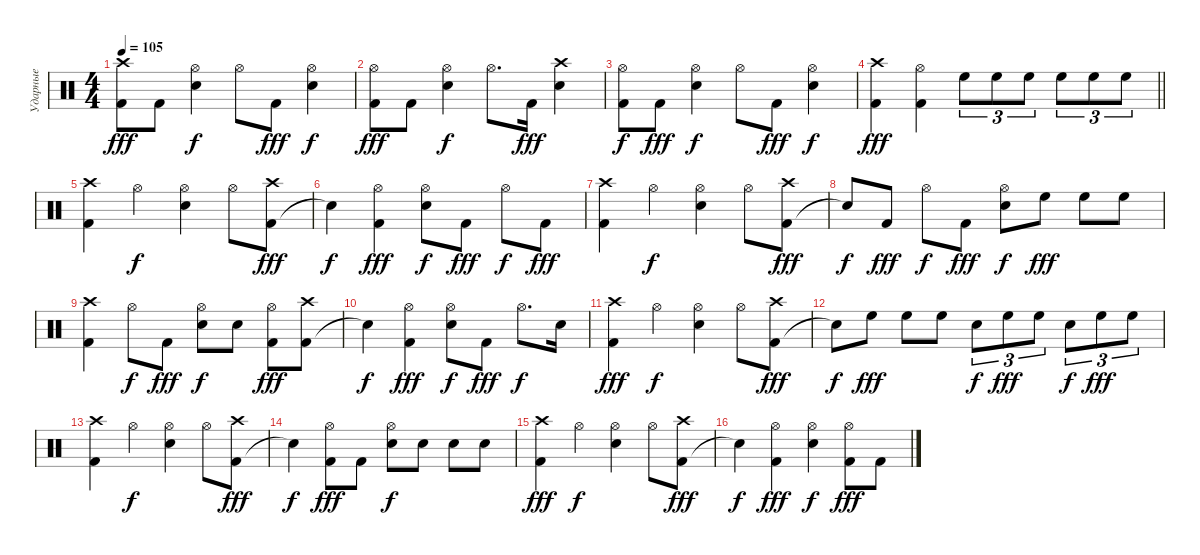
\track ("Ударные" "Ударные") {instrument percussion}
\staff {score}
\articulation defaults
\ts (4 4)
\tempo 105
\clef neutral
\ks c
("Kick (hit) 2" "Crash high (hit)").8{dy fff} "Kick (hit) 2".8 ("Snare (hit) 2" "Hi-Hat (open)").4{dy f} "Hi-Hat (open)".8 "Kick (hit) 2".8{dy fff} ("Snare (hit) 2" "Hi-Hat (open)").4{dy f} |
("Kick (hit) 2" "Hi-Hat (open)").8{dy fff} "Kick (hit) 2".8 ("Snare (hit) 2" "Hi-Hat (open)").4{dy f} "Hi-Hat (open)".8{d} "Kick (hit) 2".16{dy fff} ("Snare (hit) 2" "Crash high (hit)").4 |
("Kick (hit) 2" "Hi-Hat (open)").8{dy f} "Kick (hit) 2".8{dy fff} ("Snare (hit) 2" "Hi-Hat (open)").4{dy f} "Hi-Hat (open)".8 "Kick (hit) 2".8{dy fff} ("Snare (hit) 2" "Hi-Hat (open)").4{dy f} |
\barLineRight lightlight
("Kick (hit) 2" "Crash high (hit)").4{dy fff} ("Kick (hit) 2" "Hi-Hat (open)").4 "High Floor Tom (hit)".8{tu (3 2)} "High Floor Tom (hit)".8{tu (3 2)} "High Floor Tom (hit)".8{tu (3 2)} "High Floor Tom (hit)".8{tu (3 2)} "High Floor Tom (hit)".8{tu (3 2)} "High Floor Tom (hit)".8{tu (3 2)} |
("Kick (hit) 2" "Crash high (hit)").4 "Hi-Hat (open)".4{dy f} ("Snare (hit) 2" "Hi-Hat (open)").4 "Hi-Hat (open)".8 ("Kick (hit) 2" "Crash high (hit)").8{dy fff} |
"Snare (hit)"{t}.4{dy f} ("Kick (hit) 2" "Hi-Hat (open)").4{dy fff} ("Snare (hit) 2" "Hi-Hat (open)").8{dy f} "Kick (hit) 2".8{dy fff} "Hi-Hat (open)".8{dy f} "Kick (hit) 2".8{dy fff} |
("Kick (hit) 2" "Crash high (hit)").4 "Hi-Hat (open)".4{dy f} ("Snare (hit) 2" "Hi-Hat (open)").4 "Hi-Hat (open)".8 ("Kick (hit) 2" "Crash high (hit)").8{dy fff} |
"Snare (hit)"{t}.8{dy f} "Kick (hit) 2".8{dy fff} "Hi-Hat (open)".8{dy f} "Kick (hit) 2".8{dy fff} ("Snare (hit) 2" "Hi-Hat (open)").8{dy f} "High Floor Tom (hit)".8{dy fff} "High Floor Tom (hit)".8 "High Floor Tom (hit)".8 |
("Kick (hit) 2" "Crash high (hit)").4 "Hi-Hat (open)".8{dy f} "Kick (hit) 2".8{dy fff} ("Snare (hit) 2" "Hi-Hat (open)").8{dy f} "Snare (hit) 2".8 ("Kick (hit) 2" "Hi-Hat (open)").8{dy fff} ("Kick (hit) 2" "Crash high (hit)").8 |
"Snare (hit)"{t}.4{dy f} ("Kick (hit) 2" "Hi-Hat (open)").4{dy fff} ("Snare (hit) 2" "Hi-Hat (open)").8{dy f} "Kick (hit) 2".8{dy fff} "Hi-Hat (open)".8{d dy f} "Snare (hit) 2".16 |
("Kick (hit) 2" "Crash high (hit)").4{dy fff} "Hi-Hat (open)".4{dy f} ("Snare (hit) 2" "Hi-Hat (open)").4 "Hi-Hat (open)".8 ("Kick (hit) 2" "Crash high (hit)").8{dy fff} |
"Snare (hit)"{t}.8{dy f} "High Floor Tom (hit)".8{dy fff} "High Floor Tom (hit)".8 "High Floor Tom (hit)".8 "Snare (hit) 2".8{tu (3 2) dy f} "High Floor Tom (hit)".8{tu (3 2) dy fff} "High Floor Tom (hit)".8{tu (3 2)} "Snare (hit) 2".8{tu (3 2) dy f} "High Floor Tom (hit)".8{tu (3 2) dy fff} "High Floor Tom (hit)".8{tu (3 2)} |
("Kick (hit) 2" "Crash high (hit)").4 "Hi-Hat (open)".4{dy f} ("Snare (hit) 2" "Hi-Hat (open)").4 "Hi-Hat (open)".8 ("Kick (hit) 2" "Crash high (hit)").8{dy fff} |
"Snare (hit)"{t}.4{dy f} ("Kick (hit) 2" "Hi-Hat (open)").8{dy fff} "Kick (hit) 2".8 ("Snare (hit) 2" "Hi-Hat (open)").8{dy f} "Snare (hit) 2".8 "Electric Snare (hit)".8 "Electric Snare (hit)".8 |
("Kick (hit) 2" "Crash high (hit)").4{dy fff} "Hi-Hat (open)".4{dy f} ("Snare (hit) 2" "Hi-Hat (open)").4 "Hi-Hat (open)".8 ("Kick (hit) 2" "Crash high (hit)").8{dy fff} |
"Snare (hit)"{t}.4{dy f} ("Kick (hit) 2" "Hi-Hat (open)").4{dy fff} ("Snare (hit) 2" "Hi-Hat (open)").4{dy f} ("Kick (hit) 2" "Hi-Hat (open)").8{dy fff} "Kick (hit) 2".8
